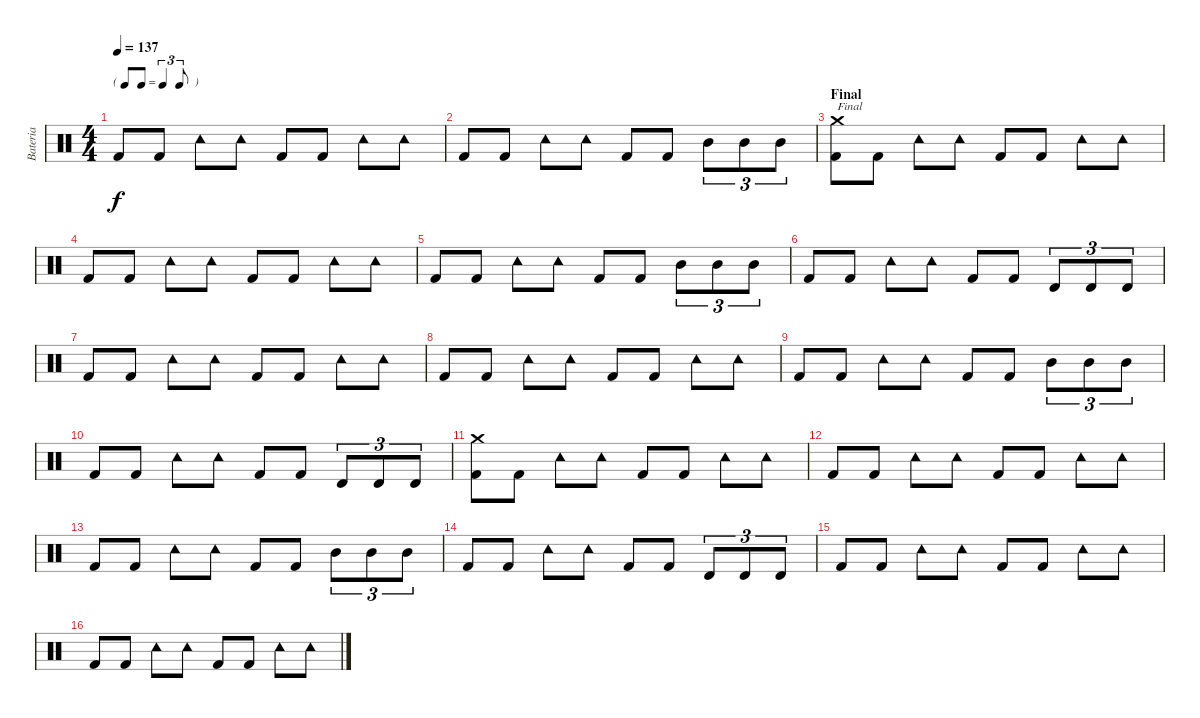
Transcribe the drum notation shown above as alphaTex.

\track ("Bateria" "Bateria") {instrument percussion}
\staff {score}
\articulation defaults
\ts (4 4)
\tf triplet8th
\tempo 137
\clef neutral
\ks c "Kick (hit) 2".8{dy f} "Kick (hit) 2".8 "Tambourine (hit)".8 "Tambourine (hit)".8 "Kick (hit) 2".8 "Kick (hit) 2".8 "Tambourine (hit)".8 "Tambourine (hit)".8
|
"Kick (hit) 2".8 "Kick (hit) 2".8 "Tambourine (hit)".8 "Tambourine (hit)".8 "Kick (hit) 2".8 "Kick (hit) 2".8 "Mid Tom (hit)".8{tu (3 2)} "Mid Tom (hit)".8{tu (3 2)} "Mid Tom (hit)".8{tu (3 2)} |
\section ("" "Final")
("Kick (hit) 2" "Crash medium (hit)").8{txt "Final"} "Kick (hit) 2".8 "Tambourine (hit)".8 "Tambourine (hit)".8 "Kick (hit) 2".8 "Kick (hit) 2".8 "Tambourine (hit)".8 "Tambourine (hit)".8 |
"Kick (hit) 2".8 "Kick (hit) 2".8 "Tambourine (hit)".8 "Tambourine (hit)".8 "Kick (hit) 2".8 "Kick (hit) 2".8 "Tambourine (hit)".8 "Tambourine (hit)".8 |
"Kick (hit) 2".8 "Kick (hit) 2".8 "Tambourine (hit)".8 "Tambourine (hit)".8 "Kick (hit) 2".8 "Kick (hit) 2".8 "Mid Tom (hit)".8{tu (3 2)} "Mid Tom (hit)".8{tu (3 2)} "Mid Tom (hit)".8{tu (3 2)} |
"Kick (hit) 2".8 "Kick (hit) 2".8 "Tambourine (hit)".8 "Tambourine (hit)".8 "Kick (hit) 2".8 "Kick (hit) 2".8 "Timbale high (hit)".8{tu (3 2)} "Timbale high (hit)".8{tu (3 2)} "Timbale high (hit)".8{tu (3 2)} |
"Kick (hit) 2".8 "Kick (hit) 2".8 "Tambourine (hit)".8 "Tambourine (hit)".8 "Kick (hit) 2".8 "Kick (hit) 2".8 "Tambourine (hit)".8 "Tambourine (hit)".8 |
"Kick (hit) 2".8 "Kick (hit) 2".8 "Tambourine (hit)".8 "Tambourine (hit)".8 "Kick (hit) 2".8 "Kick (hit) 2".8 "Tambourine (hit)".8 "Tambourine (hit)".8 |
"Kick (hit) 2".8 "Kick (hit) 2".8 "Tambourine (hit)".8 "Tambourine (hit)".8 "Kick (hit) 2".8 "Kick (hit) 2".8 "Mid Tom (hit)".8{tu (3 2)} "Mid Tom (hit)".8{tu (3 2)} "Mid Tom (hit)".8{tu (3 2)} |
"Kick (hit) 2".8 "Kick (hit) 2".8 "Tambourine (hit)".8 "Tambourine (hit)".8 "Kick (hit) 2".8 "Kick (hit) 2".8 "Timbale high (hit)".8{tu (3 2)} "Timbale high (hit)".8{tu (3 2)} "Timbale high (hit)".8{tu (3 2)} |
("Kick (hit) 2" "Crash medium (hit)").8 "Kick (hit) 2".8 "Tambourine (hit)".8 "Tambourine (hit)".8 "Kick (hit) 2".8 "Kick (hit) 2".8 "Tambourine (hit)".8 "Tambourine (hit)".8 |
"Kick (hit) 2".8 "Kick (hit) 2".8 "Tambourine (hit)".8 "Tambourine (hit)".8 "Kick (hit) 2".8 "Kick (hit) 2".8 "Tambourine (hit)".8 "Tambourine (hit)".8 |
"Kick (hit) 2".8 "Kick (hit) 2".8 "Tambourine (hit)".8 "Tambourine (hit)".8 "Kick (hit) 2".8 "Kick (hit) 2".8 "Mid Tom (hit)".8{tu (3 2)} "Mid Tom (hit)".8{tu (3 2)} "Mid Tom (hit)".8{tu (3 2)} |
"Kick (hit) 2".8 "Kick (hit) 2".8 "Tambourine (hit)".8 "Tambourine (hit)".8 "Kick (hit) 2".8 "Kick (hit) 2".8 "Timbale high (hit)".8{tu (3 2)} "Timbale high (hit)".8{tu (3 2)} "Timbale high (hit)".8{tu (3 2)} |
"Kick (hit) 2".8 "Kick (hit) 2".8 "Tambourine (hit)".8 "Tambourine (hit)".8 "Kick (hit) 2".8 "Kick (hit) 2".8 "Tambourine (hit)".8 "Tambourine (hit)".8 |
"Kick (hit) 2".8 "Kick (hit) 2".8 "Tambourine (hit)".8 "Tambourine (hit)".8 "Kick (hit) 2".8 "Kick (hit) 2".8 "Tambourine (hit)".8 "Tambourine (hit)".8
